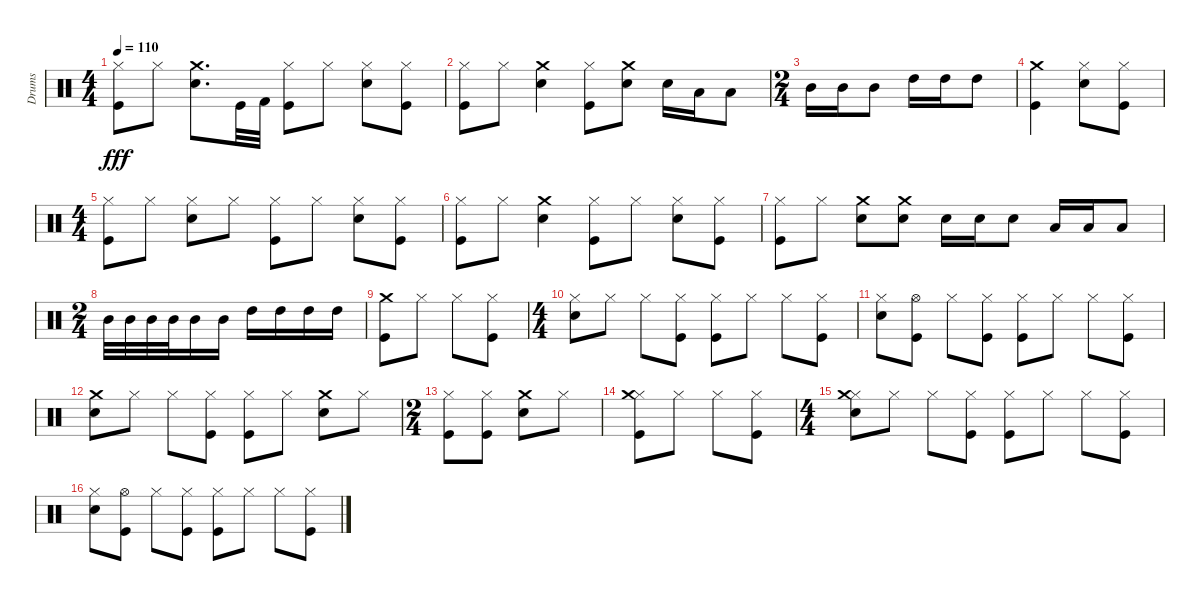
\track ("Drums" "Drums") {instrument percussion}
\staff {score}
\articulation defaults
\ts (4 4)
\tempo 110
\clef neutral
\ks c
("Hi-Hat (closed)" "Kick (hit)").8{dy fff} "Hi-Hat (closed)".8 ("Snare (hit) 2" "Crash medium (hit)").8{d} "Kick (hit)".32 "Kick (hit) 2".32 ("Hi-Hat (closed)" "Kick (hit)").8 "Hi-Hat (closed)".8 ("Snare (hit) 2" "Hi-Hat (closed)").8 ("Kick (hit)" "Hi-Hat (closed)").8 |
("Kick (hit)" "Hi-Hat (closed)").8 "Hi-Hat (closed)".8 ("Snare (hit) 2" "Crash medium (hit)").4 ("Kick (hit)" "Hi-Hat (closed)").8 ("Crash medium (hit)" "Snare (hit) 2").8 "Snare (hit) 2".16 "Low Tom (hit)".16 "Low Tom (hit)".8 |
\ts (2 4)
"Mid Tom (hit)".16 "Mid Tom (hit)".16 "Mid Tom (hit)".8 "High Tom (hit)".16 "High Tom (hit)".16 "High Tom (hit)".8 |
("Kick (hit)" "Crash medium (hit)").4 ("Snare (hit) 2" "Hi-Hat (closed)").8 ("Hi-Hat (closed)" "Kick (hit)").8 |
\ts (4 4)
("Kick (hit)" "Hi-Hat (closed)").8 "Hi-Hat (closed)".8 ("Snare (hit) 2" "Hi-Hat (closed)").8 "Hi-Hat (closed)".8 ("Kick (hit)" "Hi-Hat (closed)").8 "Hi-Hat (closed)".8 ("Hi-Hat (closed)" "Snare (hit) 2").8 ("Kick (hit)" "Hi-Hat (closed)").8 |
("Hi-Hat (closed)" "Kick (hit)").8 "Hi-Hat (closed)".8 ("Crash medium (hit)" "Snare (hit) 2").4 ("Hi-Hat (closed)" "Kick (hit)").8 "Hi-Hat (closed)".8 ("Hi-Hat (closed)" "Snare (hit) 2").8 ("Hi-Hat (closed)" "Kick (hit)").8 |
("Kick (hit)" "Hi-Hat (closed)").8 "Hi-Hat (closed)".8 ("Snare (hit) 2" "Crash medium (hit)").8 ("Snare (hit) 2" "Crash medium (hit)").8 "Snare (hit) 2".16 "Snare (hit) 2".16 "Snare (hit) 2".8 "Low Tom (hit)".16 "Low Tom (hit)".16 "Low Tom (hit)".8 |
\ts (2 4)
"Mid Tom (hit)".32 "Mid Tom (hit)".32 "Mid Tom (hit)".32 "Mid Tom (hit)".32 "Mid Tom (hit)".16 "Mid Tom (hit)".16 "High Tom (hit)".16 "High Tom (hit)".16 "High Tom (hit)".16 "High Tom (hit)".16 |
("Crash medium (hit)" "Kick (hit)").8 "Hi-Hat (closed)".8 "Hi-Hat (closed)".8 ("Kick (hit)" "Hi-Hat (closed)").8 |
\ts (4 4)
("Snare (hit) 2" "Hi-Hat (closed)").8 "Hi-Hat (closed)".8 "Hi-Hat (closed)".8 ("Kick (hit)" "Hi-Hat (closed)").8 ("Kick (hit)" "Hi-Hat (closed)").8 "Hi-Hat (closed)".8 "Hi-Hat (closed)".8 ("Kick (hit)" "Hi-Hat (closed)").8 |
("Snare (hit) 2" "Hi-Hat (closed)").8 ("Kick (hit)" "Hi-Hat (open)").8 "Hi-Hat (closed)".8 ("Kick (hit)" "Hi-Hat (closed)").8 ("Hi-Hat (closed)" "Kick (hit)").8 "Hi-Hat (closed)".8 "Hi-Hat (closed)".8 ("Kick (hit)" "Hi-Hat (closed)").8 |
("Snare (hit) 2" "Crash medium (hit)").8 "Hi-Hat (closed)".8 "Hi-Hat (closed)".8 ("Kick (hit)" "Hi-Hat (closed)").8 ("Kick (hit)" "Hi-Hat (closed)").8 "Hi-Hat (closed)".8 ("Snare (hit) 2" "Crash medium (hit)").8 "Hi-Hat (closed)".8 |
\ts (2 4)
("Kick (hit)" "Hi-Hat (closed)").8 ("Hi-Hat (closed)" "Kick (hit)").8 ("Snare (hit) 2" "Crash medium (hit)").8 "Hi-Hat (closed)".8 |
("Hi-Hat (closed)" "Kick (hit)" "Crash medium (hit)").8 "Hi-Hat (closed)".8 "Hi-Hat (closed)".8 ("Hi-Hat (closed)" "Kick (hit)").8 |
\ts (4 4)
("Hi-Hat (closed)" "Crash medium (hit)" "Snare (hit) 2").8 "Hi-Hat (closed)".8 "Hi-Hat (closed)".8 ("Kick (hit)" "Hi-Hat (closed)").8 ("Kick (hit)" "Hi-Hat (closed)").8 "Hi-Hat (closed)".8 "Hi-Hat (closed)".8 ("Hi-Hat (closed)" "Kick (hit)").8 |
("Snare (hit) 2" "Hi-Hat (closed)").8 ("Kick (hit)" "Hi-Hat (open)").8 "Hi-Hat (closed)".8 ("Kick (hit)" "Hi-Hat (closed)").8 ("Kick (hit)" "Hi-Hat (closed)").8 "Hi-Hat (closed)".8 "Hi-Hat (closed)".8 ("Hi-Hat (closed)" "Kick (hit)").8
